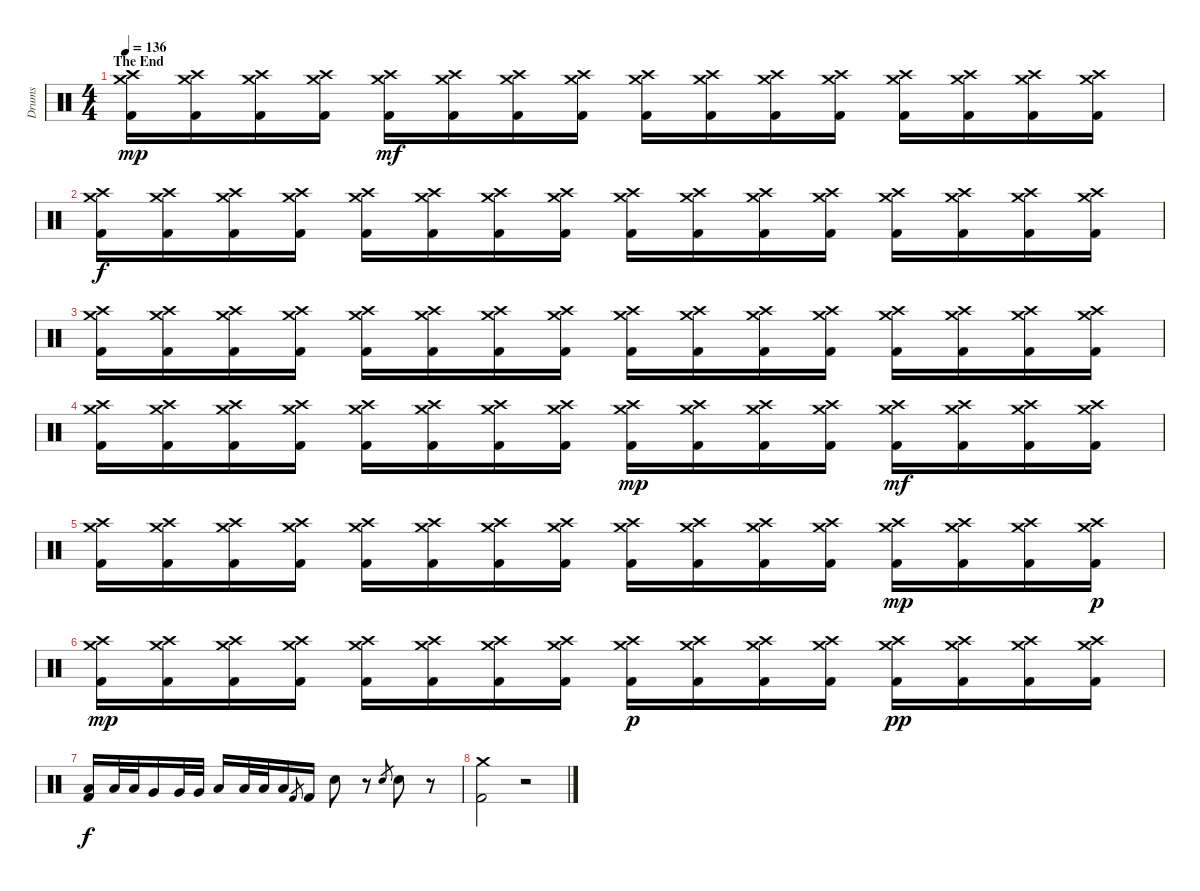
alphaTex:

\track ("Drums" "Drums") {instrument percussion}
\staff {score}
\articulation defaults
\ts (4 4)
\section ("" "The End")
\tempo 136
\clef neutral
\ks c
("Crash medium (hit)" "Crash high (hit)" "Kick (hit) 2").16{dy mp} ("Crash medium (hit)" "Crash high (hit)" "Kick (hit) 2").16 ("Crash medium (hit)" "Crash high (hit)" "Kick (hit) 2").16 ("Crash medium (hit)" "Crash high (hit)" "Kick (hit) 2").16 ("Crash medium (hit)" "Crash high (hit)" "Kick (hit) 2").16{dy mf} ("Crash medium (hit)" "Crash high (hit)" "Kick (hit) 2").16 ("Crash medium (hit)" "Crash high (hit)" "Kick (hit) 2").16 ("Crash medium (hit)" "Crash high (hit)" "Kick (hit) 2").16 ("Crash medium (hit)" "Crash high (hit)" "Kick (hit) 2").16 ("Crash medium (hit)" "Crash high (hit)" "Kick (hit) 2").16 ("Crash medium (hit)" "Crash high (hit)" "Kick (hit) 2").16 ("Crash medium (hit)" "Crash high (hit)" "Kick (hit) 2").16 ("Crash medium (hit)" "Crash high (hit)" "Kick (hit) 2").16 ("Crash medium (hit)" "Crash high (hit)" "Kick (hit) 2").16 ("Crash medium (hit)" "Crash high (hit)" "Kick (hit) 2").16 ("Crash medium (hit)" "Crash high (hit)" "Kick (hit) 2").16 |
("Crash medium (hit)" "Crash high (hit)" "Kick (hit) 2").16{dy f} ("Crash medium (hit)" "Crash high (hit)" "Kick (hit) 2").16 ("Crash medium (hit)" "Crash high (hit)" "Kick (hit) 2").16 ("Crash medium (hit)" "Crash high (hit)" "Kick (hit) 2").16 ("Crash medium (hit)" "Crash high (hit)" "Kick (hit) 2").16 ("Crash medium (hit)" "Crash high (hit)" "Kick (hit) 2").16 ("Crash medium (hit)" "Crash high (hit)" "Kick (hit) 2").16 ("Crash medium (hit)" "Crash high (hit)" "Kick (hit) 2").16 ("Crash medium (hit)" "Crash high (hit)" "Kick (hit) 2").16 ("Crash medium (hit)" "Crash high (hit)" "Kick (hit) 2").16 ("Crash medium (hit)" "Crash high (hit)" "Kick (hit) 2").16 ("Crash medium (hit)" "Crash high (hit)" "Kick (hit) 2").16 ("Crash medium (hit)" "Crash high (hit)" "Kick (hit) 2").16 ("Crash medium (hit)" "Crash high (hit)" "Kick (hit) 2").16 ("Crash medium (hit)" "Crash high (hit)" "Kick (hit) 2").16 ("Crash medium (hit)" "Crash high (hit)" "Kick (hit) 2").16 |
("Crash medium (hit)" "Crash high (hit)" "Kick (hit) 2").16 ("Crash medium (hit)" "Crash high (hit)" "Kick (hit) 2").16 ("Crash medium (hit)" "Crash high (hit)" "Kick (hit) 2").16 ("Crash medium (hit)" "Crash high (hit)" "Kick (hit) 2").16 ("Crash medium (hit)" "Crash high (hit)" "Kick (hit) 2").16 ("Crash medium (hit)" "Crash high (hit)" "Kick (hit) 2").16 ("Crash medium (hit)" "Crash high (hit)" "Kick (hit) 2").16 ("Crash medium (hit)" "Crash high (hit)" "Kick (hit) 2").16 ("Crash medium (hit)" "Crash high (hit)" "Kick (hit) 2").16 ("Crash medium (hit)" "Crash high (hit)" "Kick (hit) 2").16 ("Crash medium (hit)" "Crash high (hit)" "Kick (hit) 2").16 ("Crash medium (hit)" "Crash high (hit)" "Kick (hit) 2").16 ("Crash medium (hit)" "Crash high (hit)" "Kick (hit) 2").16 ("Crash medium (hit)" "Crash high (hit)" "Kick (hit) 2").16 ("Crash medium (hit)" "Crash high (hit)" "Kick (hit) 2").16 ("Crash medium (hit)" "Crash high (hit)" "Kick (hit) 2").16 |
("Crash medium (hit)" "Crash high (hit)" "Kick (hit) 2").16 ("Crash medium (hit)" "Crash high (hit)" "Kick (hit) 2").16 ("Crash medium (hit)" "Crash high (hit)" "Kick (hit) 2").16 ("Crash medium (hit)" "Crash high (hit)" "Kick (hit) 2").16 ("Crash medium (hit)" "Crash high (hit)" "Kick (hit) 2").16 ("Crash medium (hit)" "Crash high (hit)" "Kick (hit) 2").16 ("Crash medium (hit)" "Crash high (hit)" "Kick (hit) 2").16 ("Crash medium (hit)" "Crash high (hit)" "Kick (hit) 2").16 ("Crash medium (hit)" "Crash high (hit)" "Kick (hit) 2").16{dy mp} ("Crash medium (hit)" "Crash high (hit)" "Kick (hit) 2").16 ("Crash medium (hit)" "Crash high (hit)" "Kick (hit) 2").16 ("Crash medium (hit)" "Crash high (hit)" "Kick (hit) 2").16 ("Crash medium (hit)" "Crash high (hit)" "Kick (hit) 2").16{dy mf} ("Crash medium (hit)" "Crash high (hit)" "Kick (hit) 2").16 ("Crash medium (hit)" "Crash high (hit)" "Kick (hit) 2").16 ("Crash medium (hit)" "Crash high (hit)" "Kick (hit) 2").16 |
("Crash medium (hit)" "Crash high (hit)" "Kick (hit) 2").16 ("Crash medium (hit)" "Crash high (hit)" "Kick (hit) 2").16 ("Crash medium (hit)" "Crash high (hit)" "Kick (hit) 2").16 ("Crash medium (hit)" "Crash high (hit)" "Kick (hit) 2").16 ("Crash medium (hit)" "Crash high (hit)" "Kick (hit) 2").16 ("Crash medium (hit)" "Crash high (hit)" "Kick (hit) 2").16 ("Crash medium (hit)" "Crash high (hit)" "Kick (hit) 2").16 ("Crash medium (hit)" "Crash high (hit)" "Kick (hit) 2").16 ("Crash medium (hit)" "Crash high (hit)" "Kick (hit) 2").16 ("Crash medium (hit)" "Crash high (hit)" "Kick (hit) 2").16 ("Crash medium (hit)" "Crash high (hit)" "Kick (hit) 2").16 ("Crash medium (hit)" "Crash high (hit)" "Kick (hit) 2").16 ("Crash medium (hit)" "Crash high (hit)" "Kick (hit) 2").16{dy mp} ("Crash medium (hit)" "Crash high (hit)" "Kick (hit) 2").16 ("Crash medium (hit)" "Crash high (hit)" "Kick (hit) 2").16 ("Crash medium (hit)" "Crash high (hit)" "Kick (hit) 2").16{dy p} |
("Crash medium (hit)" "Crash high (hit)" "Kick (hit) 2").16{dy mp} ("Crash medium (hit)" "Crash high (hit)" "Kick (hit) 2").16 ("Crash medium (hit)" "Crash high (hit)" "Kick (hit) 2").16 ("Crash medium (hit)" "Crash high (hit)" "Kick (hit) 2").16 ("Crash medium (hit)" "Crash high (hit)" "Kick (hit) 2").16 ("Crash medium (hit)" "Crash high (hit)" "Kick (hit) 2").16 ("Crash medium (hit)" "Crash high (hit)" "Kick (hit) 2").16 ("Crash medium (hit)" "Crash high (hit)" "Kick (hit) 2").16 ("Crash medium (hit)" "Crash high (hit)" "Kick (hit) 2").16{dy p} ("Crash medium (hit)" "Crash high (hit)" "Kick (hit) 2").16 ("Crash medium (hit)" "Crash high (hit)" "Kick (hit) 2").16 ("Crash medium (hit)" "Crash high (hit)" "Kick (hit) 2").16 ("Crash medium (hit)" "Crash high (hit)" "Kick (hit) 2").16{dy pp} ("Crash medium (hit)" "Crash high (hit)" "Kick (hit) 2").16 ("Crash medium (hit)" "Crash high (hit)" "Kick (hit) 2").16 ("Crash medium (hit)" "Crash high (hit)" "Kick (hit) 2").16 |
("Low Tom (hit)" "Kick (hit) 2").16{dy f} "Low Tom (hit)".32 "Low Tom (hit)".32 "Very Low Tom (hit)".16 "Very Low Tom (hit)".32 "Very Low Tom (hit)".32 "Low Floor Tom (hit)".16 "Low Floor Tom (hit)".32 "Low Floor Tom (hit)".32 "Low Floor Tom (hit)".16 "Kick (hit) 2".8{gr} "Kick (hit) 2".16 "Snare (hit) 2".8 r.8 "Snare (hit) 2".8{gr} "Snare (hit) 2".8 r.8 |
("Crash medium (hit)" "Kick (hit) 2").2 r.2
